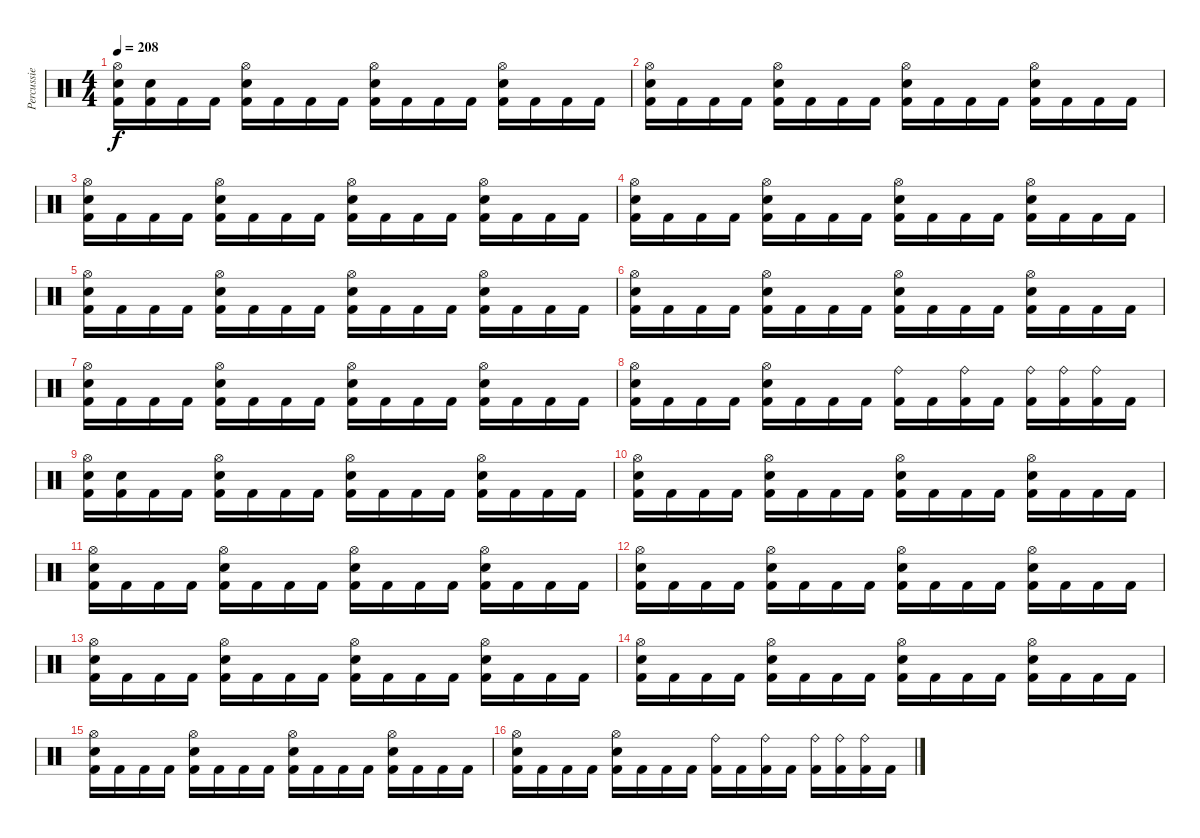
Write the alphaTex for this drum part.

\track ("Percussie" "Percussie") {instrument percussion}
\staff {score}
\articulation defaults
\ts (4 4)
\tempo 208
\clef neutral
\ks c
("Hi-Hat (open)" "Electric Snare (hit)" "Kick (hit) 2").16{dy f} ("Electric Snare (hit)" "Kick (hit) 2").16 "Kick (hit) 2".16 "Kick (hit) 2".16 ("Hi-Hat (open)" "Electric Snare (hit)" "Kick (hit) 2").16 "Kick (hit) 2".16 "Kick (hit) 2".16 "Kick (hit) 2".16 ("Hi-Hat (open)" "Electric Snare (hit)" "Kick (hit) 2").16 "Kick (hit) 2".16 "Kick (hit) 2".16 "Kick (hit) 2".16 ("Hi-Hat (open)" "Electric Snare (hit)" "Kick (hit) 2").16 "Kick (hit) 2".16 "Kick (hit) 2".16 "Kick (hit) 2".16 |
("Hi-Hat (open)" "Electric Snare (hit)" "Kick (hit) 2").16 "Kick (hit) 2".16 "Kick (hit) 2".16 "Kick (hit) 2".16 ("Hi-Hat (open)" "Electric Snare (hit)" "Kick (hit) 2").16 "Kick (hit) 2".16 "Kick (hit) 2".16 "Kick (hit) 2".16 ("Hi-Hat (open)" "Electric Snare (hit)" "Kick (hit) 2").16 "Kick (hit) 2".16 "Kick (hit) 2".16 "Kick (hit) 2".16 ("Hi-Hat (open)" "Electric Snare (hit)" "Kick (hit) 2").16 "Kick (hit) 2".16 "Kick (hit) 2".16 "Kick (hit) 2".16 |
("Hi-Hat (open)" "Electric Snare (hit)" "Kick (hit) 2").16 "Kick (hit) 2".16 "Kick (hit) 2".16 "Kick (hit) 2".16 ("Hi-Hat (open)" "Electric Snare (hit)" "Kick (hit) 2").16 "Kick (hit) 2".16 "Kick (hit) 2".16 "Kick (hit) 2".16 ("Hi-Hat (open)" "Electric Snare (hit)" "Kick (hit) 2").16 "Kick (hit) 2".16 "Kick (hit) 2".16 "Kick (hit) 2".16 ("Hi-Hat (open)" "Electric Snare (hit)" "Kick (hit) 2").16 "Kick (hit) 2".16 "Kick (hit) 2".16 "Kick (hit) 2".16 |
("Hi-Hat (open)" "Electric Snare (hit)" "Kick (hit) 2").16 "Kick (hit) 2".16 "Kick (hit) 2".16 "Kick (hit) 2".16 ("Hi-Hat (open)" "Electric Snare (hit)" "Kick (hit) 2").16 "Kick (hit) 2".16 "Kick (hit) 2".16 "Kick (hit) 2".16 ("Hi-Hat (open)" "Electric Snare (hit)" "Kick (hit) 2").16 "Kick (hit) 2".16 "Kick (hit) 2".16 "Kick (hit) 2".16 ("Hi-Hat (open)" "Electric Snare (hit)" "Kick (hit) 2").16 "Kick (hit) 2".16 "Kick (hit) 2".16 "Kick (hit) 2".16 |
("Hi-Hat (open)" "Electric Snare (hit)" "Kick (hit) 2").16 "Kick (hit) 2".16 "Kick (hit) 2".16 "Kick (hit) 2".16 ("Hi-Hat (open)" "Electric Snare (hit)" "Kick (hit) 2").16 "Kick (hit) 2".16 "Kick (hit) 2".16 "Kick (hit) 2".16 ("Hi-Hat (open)" "Electric Snare (hit)" "Kick (hit) 2").16 "Kick (hit) 2".16 "Kick (hit) 2".16 "Kick (hit) 2".16 ("Hi-Hat (open)" "Electric Snare (hit)" "Kick (hit) 2").16 "Kick (hit) 2".16 "Kick (hit) 2".16 "Kick (hit) 2".16 |
("Hi-Hat (open)" "Electric Snare (hit)" "Kick (hit) 2").16 "Kick (hit) 2".16 "Kick (hit) 2".16 "Kick (hit) 2".16 ("Hi-Hat (open)" "Electric Snare (hit)" "Kick (hit) 2").16 "Kick (hit) 2".16 "Kick (hit) 2".16 "Kick (hit) 2".16 ("Hi-Hat (open)" "Electric Snare (hit)" "Kick (hit) 2").16 "Kick (hit) 2".16 "Kick (hit) 2".16 "Kick (hit) 2".16 ("Hi-Hat (open)" "Electric Snare (hit)" "Kick (hit) 2").16 "Kick (hit) 2".16 "Kick (hit) 2".16 "Kick (hit) 2".16 |
("Hi-Hat (open)" "Electric Snare (hit)" "Kick (hit) 2").16 "Kick (hit) 2".16 "Kick (hit) 2".16 "Kick (hit) 2".16 ("Hi-Hat (open)" "Electric Snare (hit)" "Kick (hit) 2").16 "Kick (hit) 2".16 "Kick (hit) 2".16 "Kick (hit) 2".16 ("Hi-Hat (open)" "Electric Snare (hit)" "Kick (hit) 2").16 "Kick (hit) 2".16 "Kick (hit) 2".16 "Kick (hit) 2".16 ("Hi-Hat (open)" "Electric Snare (hit)" "Kick (hit) 2").16 "Kick (hit) 2".16 "Kick (hit) 2".16 "Kick (hit) 2".16 |
("Hi-Hat (open)" "Electric Snare (hit)" "Kick (hit) 2").16 "Kick (hit) 2".16 "Kick (hit) 2".16 "Kick (hit) 2".16 ("Hi-Hat (open)" "Electric Snare (hit)" "Kick (hit) 2").16 "Kick (hit) 2".16 "Kick (hit) 2".16 "Kick (hit) 2".16 ("Ride (bell)" "Kick (hit) 2").16 "Kick (hit) 2".16 ("Ride (bell)" "Kick (hit) 2").16 "Kick (hit) 2".16 ("Ride (bell)" "Kick (hit) 2").16 ("Ride (bell)" "Kick (hit) 2").16 ("Ride (bell)" "Kick (hit) 2").16 "Kick (hit) 2".16 |
("Hi-Hat (open)" "Electric Snare (hit)" "Kick (hit) 2").16 ("Electric Snare (hit)" "Kick (hit) 2").16 "Kick (hit) 2".16 "Kick (hit) 2".16 ("Hi-Hat (open)" "Electric Snare (hit)" "Kick (hit) 2").16 "Kick (hit) 2".16 "Kick (hit) 2".16 "Kick (hit) 2".16 ("Hi-Hat (open)" "Electric Snare (hit)" "Kick (hit) 2").16 "Kick (hit) 2".16 "Kick (hit) 2".16 "Kick (hit) 2".16 ("Hi-Hat (open)" "Electric Snare (hit)" "Kick (hit) 2").16 "Kick (hit) 2".16 "Kick (hit) 2".16 "Kick (hit) 2".16 |
("Hi-Hat (open)" "Electric Snare (hit)" "Kick (hit) 2").16 "Kick (hit) 2".16 "Kick (hit) 2".16 "Kick (hit) 2".16 ("Hi-Hat (open)" "Electric Snare (hit)" "Kick (hit) 2").16 "Kick (hit) 2".16 "Kick (hit) 2".16 "Kick (hit) 2".16 ("Hi-Hat (open)" "Electric Snare (hit)" "Kick (hit) 2").16 "Kick (hit) 2".16 "Kick (hit) 2".16 "Kick (hit) 2".16 ("Hi-Hat (open)" "Electric Snare (hit)" "Kick (hit) 2").16 "Kick (hit) 2".16 "Kick (hit) 2".16 "Kick (hit) 2".16 |
("Hi-Hat (open)" "Electric Snare (hit)" "Kick (hit) 2").16 "Kick (hit) 2".16 "Kick (hit) 2".16 "Kick (hit) 2".16 ("Hi-Hat (open)" "Electric Snare (hit)" "Kick (hit) 2").16 "Kick (hit) 2".16 "Kick (hit) 2".16 "Kick (hit) 2".16 ("Hi-Hat (open)" "Electric Snare (hit)" "Kick (hit) 2").16 "Kick (hit) 2".16 "Kick (hit) 2".16 "Kick (hit) 2".16 ("Hi-Hat (open)" "Electric Snare (hit)" "Kick (hit) 2").16 "Kick (hit) 2".16 "Kick (hit) 2".16 "Kick (hit) 2".16 |
("Hi-Hat (open)" "Electric Snare (hit)" "Kick (hit) 2").16 "Kick (hit) 2".16 "Kick (hit) 2".16 "Kick (hit) 2".16 ("Hi-Hat (open)" "Electric Snare (hit)" "Kick (hit) 2").16 "Kick (hit) 2".16 "Kick (hit) 2".16 "Kick (hit) 2".16 ("Hi-Hat (open)" "Electric Snare (hit)" "Kick (hit) 2").16 "Kick (hit) 2".16 "Kick (hit) 2".16 "Kick (hit) 2".16 ("Hi-Hat (open)" "Electric Snare (hit)" "Kick (hit) 2").16 "Kick (hit) 2".16 "Kick (hit) 2".16 "Kick (hit) 2".16 |
("Hi-Hat (open)" "Electric Snare (hit)" "Kick (hit) 2").16 "Kick (hit) 2".16 "Kick (hit) 2".16 "Kick (hit) 2".16 ("Hi-Hat (open)" "Electric Snare (hit)" "Kick (hit) 2").16 "Kick (hit) 2".16 "Kick (hit) 2".16 "Kick (hit) 2".16 ("Hi-Hat (open)" "Electric Snare (hit)" "Kick (hit) 2").16 "Kick (hit) 2".16 "Kick (hit) 2".16 "Kick (hit) 2".16 ("Hi-Hat (open)" "Electric Snare (hit)" "Kick (hit) 2").16 "Kick (hit) 2".16 "Kick (hit) 2".16 "Kick (hit) 2".16 |
("Hi-Hat (open)" "Electric Snare (hit)" "Kick (hit) 2").16 "Kick (hit) 2".16 "Kick (hit) 2".16 "Kick (hit) 2".16 ("Hi-Hat (open)" "Electric Snare (hit)" "Kick (hit) 2").16 "Kick (hit) 2".16 "Kick (hit) 2".16 "Kick (hit) 2".16 ("Hi-Hat (open)" "Electric Snare (hit)" "Kick (hit) 2").16 "Kick (hit) 2".16 "Kick (hit) 2".16 "Kick (hit) 2".16 ("Hi-Hat (open)" "Electric Snare (hit)" "Kick (hit) 2").16 "Kick (hit) 2".16 "Kick (hit) 2".16 "Kick (hit) 2".16 |
("Hi-Hat (open)" "Electric Snare (hit)" "Kick (hit) 2").16 "Kick (hit) 2".16 "Kick (hit) 2".16 "Kick (hit) 2".16 ("Hi-Hat (open)" "Electric Snare (hit)" "Kick (hit) 2").16 "Kick (hit) 2".16 "Kick (hit) 2".16 "Kick (hit) 2".16 ("Hi-Hat (open)" "Electric Snare (hit)" "Kick (hit) 2").16 "Kick (hit) 2".16 "Kick (hit) 2".16 "Kick (hit) 2".16 ("Hi-Hat (open)" "Electric Snare (hit)" "Kick (hit) 2").16 "Kick (hit) 2".16 "Kick (hit) 2".16 "Kick (hit) 2".16 |
("Hi-Hat (open)" "Electric Snare (hit)" "Kick (hit) 2").16 "Kick (hit) 2".16 "Kick (hit) 2".16 "Kick (hit) 2".16 ("Hi-Hat (open)" "Electric Snare (hit)" "Kick (hit) 2").16 "Kick (hit) 2".16 "Kick (hit) 2".16 "Kick (hit) 2".16 ("Ride (bell)" "Kick (hit) 2").16 "Kick (hit) 2".16 ("Ride (bell)" "Kick (hit) 2").16 "Kick (hit) 2".16 ("Ride (bell)" "Kick (hit) 2").16 ("Ride (bell)" "Kick (hit) 2").16 ("Ride (bell)" "Kick (hit) 2").16 "Kick (hit) 2".16
